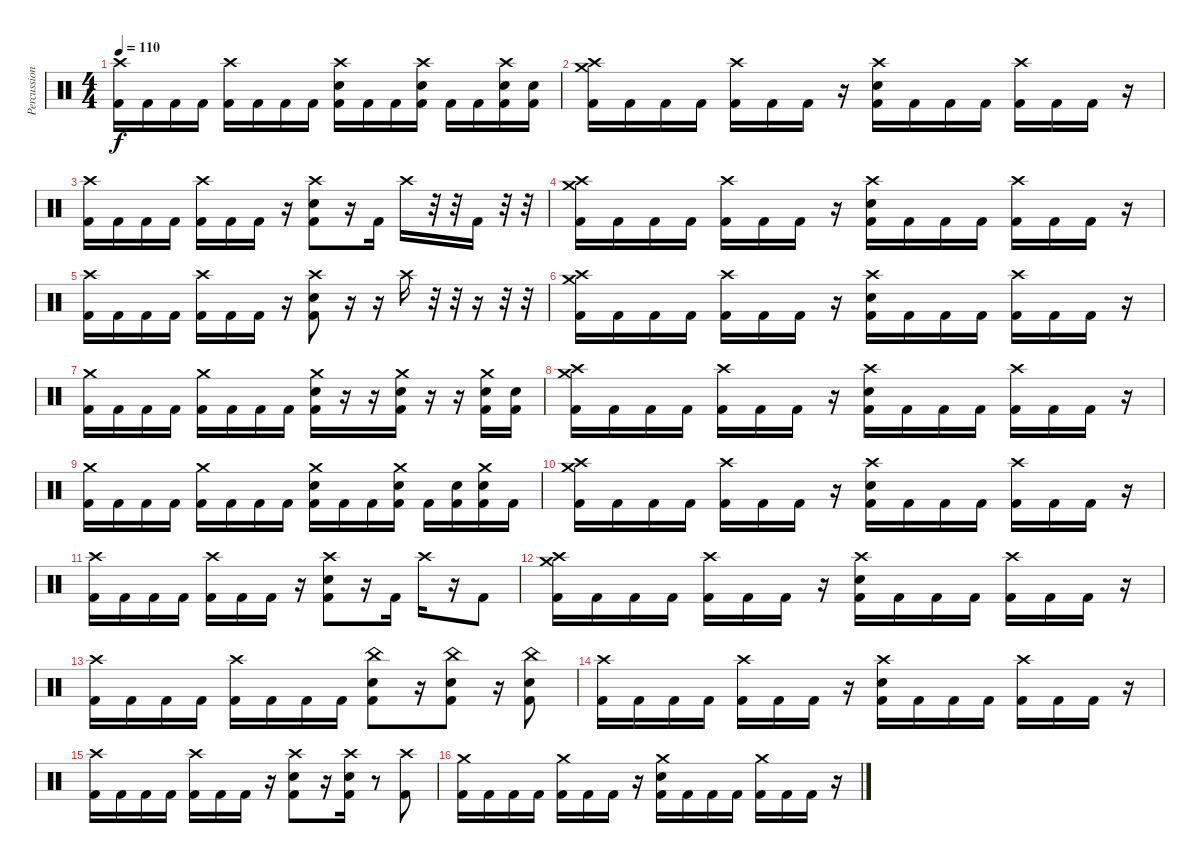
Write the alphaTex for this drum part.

\track ("Percussion" "Percussion") {instrument percussion}
\staff {score}
\articulation defaults
\ts (4 4)
\tempo 110
\clef neutral
\ks c
("Crash high (hit)" "Kick (hit) 2").16{dy f} "Kick (hit) 2".16 "Kick (hit) 2".16 "Kick (hit) 2".16 ("Crash high (hit)" "Kick (hit) 2").16 "Kick (hit) 2".16 "Kick (hit) 2".16 "Kick (hit) 2".16 ("Crash high (hit)" "Snare (hit) 2" "Kick (hit) 2").16 "Kick (hit) 2".16 "Kick (hit) 2".16 ("Crash high (hit)" "Snare (hit) 2" "Kick (hit) 2").16 "Kick (hit) 2".16 "Kick (hit) 2".16 ("Crash high (hit)" "Snare (hit) 2" "Kick (hit) 2").16 ("Snare (hit) 2" "Kick (hit) 2").16 |
("Crash high (hit)" "Crash medium (hit)" "Kick (hit) 2").16 "Kick (hit) 2".16 "Kick (hit) 2".16 "Kick (hit) 2".16 ("Crash high (hit)" "Kick (hit) 2").16 "Kick (hit) 2".16 "Kick (hit) 2".16 r.16 ("Crash high (hit)" "Snare (hit) 2" "Kick (hit) 2").16 "Kick (hit) 2".16 "Kick (hit) 2".16 "Kick (hit) 2".16 ("Crash high (hit)" "Kick (hit) 2").16 "Kick (hit) 2".16 "Kick (hit) 2".16 r.16 |
("Crash high (hit)" "Kick (hit) 2").16 "Kick (hit) 2".16 "Kick (hit) 2".16 "Kick (hit) 2".16 ("Crash high (hit)" "Kick (hit) 2").16 "Kick (hit) 2".16 "Kick (hit) 2".16 r.16 ("Crash high (hit)" "Snare (hit) 2" "Kick (hit) 2").8 r.16 "Kick (hit) 2".16 "Crash high (hit)".16 r.32 r.32 "Kick (hit) 2".16 r.32 r.32 |
("Crash high (hit)" "Crash medium (hit)" "Kick (hit) 2").16 "Kick (hit) 2".16 "Kick (hit) 2".16 "Kick (hit) 2".16 ("Crash high (hit)" "Kick (hit) 2").16 "Kick (hit) 2".16 "Kick (hit) 2".16 r.16 ("Crash high (hit)" "Snare (hit) 2" "Kick (hit) 2").16 "Kick (hit) 2".16 "Kick (hit) 2".16 "Kick (hit) 2".16 ("Crash high (hit)" "Kick (hit) 2").16 "Kick (hit) 2".16 "Kick (hit) 2".16 r.16 |
("Crash high (hit)" "Kick (hit) 2").16 "Kick (hit) 2".16 "Kick (hit) 2".16 "Kick (hit) 2".16 ("Crash high (hit)" "Kick (hit) 2").16 "Kick (hit) 2".16 "Kick (hit) 2".16 r.16 ("Crash high (hit)" "Snare (hit) 2" "Kick (hit) 2").8 r.16 r.16 "Crash high (hit)".16 r.32 r.32 r.16 r.32 r.32 |
("Crash high (hit)" "Crash medium (hit)" "Kick (hit) 2").16 "Kick (hit) 2".16 "Kick (hit) 2".16 "Kick (hit) 2".16 ("Crash high (hit)" "Kick (hit) 2").16 "Kick (hit) 2".16 "Kick (hit) 2".16 r.16 ("Crash high (hit)" "Snare (hit) 2" "Kick (hit) 2").16 "Kick (hit) 2".16 "Kick (hit) 2".16 "Kick (hit) 2".16 ("Crash high (hit)" "Kick (hit) 2").16 "Kick (hit) 2".16 "Kick (hit) 2".16 r.16 |
("Crash medium (hit)" "Kick (hit) 2").16 "Kick (hit) 2".16 "Kick (hit) 2".16 "Kick (hit) 2".16 ("Crash medium (hit)" "Kick (hit) 2").16 "Kick (hit) 2".16 "Kick (hit) 2".16 "Kick (hit) 2".16 ("Crash medium (hit)" "Snare (hit) 2" "Kick (hit) 2").16 r.16 r.16 ("Crash medium (hit)" "Snare (hit) 2" "Kick (hit) 2").16 r.16 r.16 ("Crash medium (hit)" "Snare (hit) 2" "Kick (hit) 2").16 ("Snare (hit) 2" "Kick (hit) 2").16 |
("Crash high (hit)" "Crash medium (hit)" "Kick (hit) 2").16 "Kick (hit) 2".16 "Kick (hit) 2".16 "Kick (hit) 2".16 ("Crash high (hit)" "Kick (hit) 2").16 "Kick (hit) 2".16 "Kick (hit) 2".16 r.16 ("Crash high (hit)" "Snare (hit) 2" "Kick (hit) 2").16 "Kick (hit) 2".16 "Kick (hit) 2".16 "Kick (hit) 2".16 ("Crash high (hit)" "Kick (hit) 2").16 "Kick (hit) 2".16 "Kick (hit) 2".16 r.16 |
("Crash medium (hit)" "Kick (hit) 2").16 "Kick (hit) 2".16 "Kick (hit) 2".16 "Kick (hit) 2".16 ("Crash medium (hit)" "Kick (hit) 2").16 "Kick (hit) 2".16 "Kick (hit) 2".16 "Kick (hit) 2".16 ("Crash medium (hit)" "Snare (hit) 2" "Kick (hit) 2").16 "Kick (hit) 2".16 "Kick (hit) 2".16 ("Crash medium (hit)" "Snare (hit) 2" "Kick (hit) 2").16 "Kick (hit) 2".16 ("Snare (hit) 2" "Kick (hit) 2").16 ("Crash medium (hit)" "Snare (hit) 2" "Kick (hit) 2").16 "Kick (hit) 2".16 |
("Crash high (hit)" "Crash medium (hit)" "Kick (hit) 2").16 "Kick (hit) 2".16 "Kick (hit) 2".16 "Kick (hit) 2".16 ("Crash high (hit)" "Kick (hit) 2").16 "Kick (hit) 2".16 "Kick (hit) 2".16 r.16 ("Crash high (hit)" "Snare (hit) 2" "Kick (hit) 2").16 "Kick (hit) 2".16 "Kick (hit) 2".16 "Kick (hit) 2".16 ("Crash high (hit)" "Kick (hit) 2").16 "Kick (hit) 2".16 "Kick (hit) 2".16 r.16 |
("Crash high (hit)" "Kick (hit) 2").16 "Kick (hit) 2".16 "Kick (hit) 2".16 "Kick (hit) 2".16 ("Crash high (hit)" "Kick (hit) 2").16 "Kick (hit) 2".16 "Kick (hit) 2".16 r.16 ("Crash high (hit)" "Snare (hit) 2" "Kick (hit) 2").8 r.16 "Kick (hit) 2".16 "Crash high (hit)".16 r.16 "Kick (hit) 2".8 |
("Crash high (hit)" "Crash medium (hit)" "Kick (hit) 2").16 "Kick (hit) 2".16 "Kick (hit) 2".16 "Kick (hit) 2".16 ("Crash high (hit)" "Kick (hit) 2").16 "Kick (hit) 2".16 "Kick (hit) 2".16 r.16 ("Crash high (hit)" "Snare (hit) 2" "Kick (hit) 2").16 "Kick (hit) 2".16 "Kick (hit) 2".16 "Kick (hit) 2".16 ("Crash high (hit)" "Kick (hit) 2").16 "Kick (hit) 2".16 "Kick (hit) 2".16 r.16 |
("Crash high (hit)" "Kick (hit) 2").16 "Kick (hit) 2".16 "Kick (hit) 2".16 "Kick (hit) 2".16 ("Crash high (hit)" "Kick (hit) 2").16 "Kick (hit) 2".16 "Kick (hit) 2".16 "Kick (hit) 2".16 ("China (hit)" "Snare (hit) 2" "Kick (hit) 2").8 r.16 ("China (hit)" "Snare (hit) 2" "Kick (hit) 2").8 r.16 ("China (hit)" "Snare (hit) 2" "Kick (hit) 2").8 |
("Crash high (hit)" "Kick (hit) 2").16 "Kick (hit) 2".16 "Kick (hit) 2".16 "Kick (hit) 2".16 ("Crash high (hit)" "Kick (hit) 2").16 "Kick (hit) 2".16 "Kick (hit) 2".16 r.16 ("Crash high (hit)" "Snare (hit) 2" "Kick (hit) 2").16 "Kick (hit) 2".16 "Kick (hit) 2".16 "Kick (hit) 2".16 ("Crash high (hit)" "Kick (hit) 2").16 "Kick (hit) 2".16 "Kick (hit) 2".16 r.16 |
("Crash high (hit)" "Kick (hit) 2").16 "Kick (hit) 2".16 "Kick (hit) 2".16 "Kick (hit) 2".16 ("Crash high (hit)" "Kick (hit) 2").16 "Kick (hit) 2".16 "Kick (hit) 2".16 r.16 ("Crash high (hit)" "Snare (hit) 2" "Kick (hit) 2").8 r.16 ("Crash high (hit)" "Snare (hit) 2" "Kick (hit) 2").16 r.8 ("Crash high (hit)" "Kick (hit) 2").8 |
("Crash medium (hit)" "Kick (hit) 2").16 "Kick (hit) 2".16 "Kick (hit) 2".16 "Kick (hit) 2".16 ("Crash medium (hit)" "Kick (hit) 2").16 "Kick (hit) 2".16 "Kick (hit) 2".16 r.16 ("Crash medium (hit)" "Snare (hit) 2" "Kick (hit) 2").16 "Kick (hit) 2".16 "Kick (hit) 2".16 "Kick (hit) 2".16 ("Crash medium (hit)" "Kick (hit) 2").16 "Kick (hit) 2".16 "Kick (hit) 2".16 r.16
